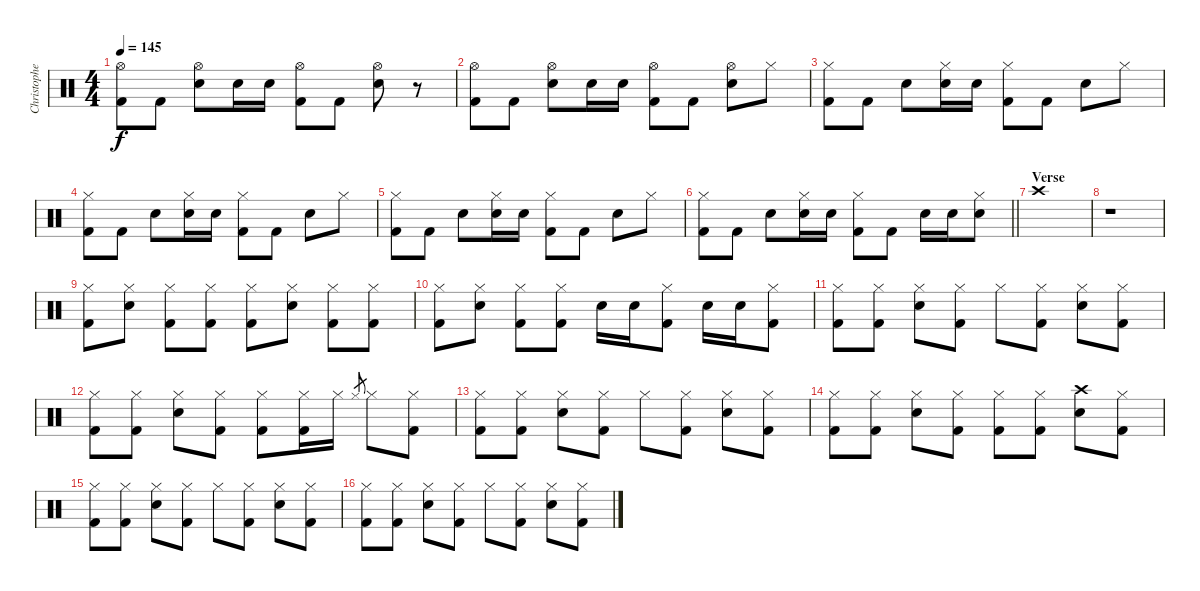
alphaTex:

\track ("Christopher - Drums" "Christophe") {instrument percussion}
\staff {score}
\articulation defaults
\ts (4 4)
\tempo 145
\clef neutral
\ks c
("Hi-Hat (open)" "Kick (hit) 2").8{dy f} "Kick (hit) 2".8 ("Hi-Hat (open)" "Electric Snare (hit)").8 "Electric Snare (hit)".16 "Electric Snare (hit)".16 ("Hi-Hat (open)" "Kick (hit) 2").8 "Kick (hit) 2".8 ("Hi-Hat (open)" "Electric Snare (hit)").8 r.8 |
("Hi-Hat (open)" "Kick (hit) 2").8 "Kick (hit) 2".8 ("Hi-Hat (open)" "Electric Snare (hit)").8 "Electric Snare (hit)".16 "Electric Snare (hit)".16 ("Hi-Hat (open)" "Kick (hit) 2").8 "Kick (hit) 2".8 ("Hi-Hat (open)" "Electric Snare (hit)").8 "Hi-Hat (closed)".8 |
("Hi-Hat (closed)" "Kick (hit) 2").8 "Kick (hit) 2".8 "Electric Snare (hit)".8 ("Hi-Hat (closed)" "Electric Snare (hit)").16 "Electric Snare (hit)".16 ("Hi-Hat (closed)" "Kick (hit) 2").8 "Kick (hit) 2".8 "Electric Snare (hit)".8 "Hi-Hat (closed)".8 |
("Hi-Hat (closed)" "Kick (hit) 2").8 "Kick (hit) 2".8 "Electric Snare (hit)".8 ("Hi-Hat (closed)" "Electric Snare (hit)").16 "Electric Snare (hit)".16 ("Hi-Hat (closed)" "Kick (hit) 2").8 "Kick (hit) 2".8 "Electric Snare (hit)".8 "Hi-Hat (closed)".8 |
("Hi-Hat (closed)" "Kick (hit) 2").8 "Kick (hit) 2".8 "Electric Snare (hit)".8 ("Hi-Hat (closed)" "Electric Snare (hit)").16 "Electric Snare (hit)".16 ("Hi-Hat (closed)" "Kick (hit) 2").8 "Kick (hit) 2".8 "Electric Snare (hit)".8 "Hi-Hat (closed)".8 |
\barLineRight lightlight
("Hi-Hat (closed)" "Kick (hit) 2").8 "Kick (hit) 2".8 "Electric Snare (hit)".8 ("Hi-Hat (closed)" "Electric Snare (hit)").16 "Electric Snare (hit)".16 ("Hi-Hat (closed)" "Kick (hit) 2").8 "Kick (hit) 2".8 "Electric Snare (hit)".16 "Electric Snare (hit)".16 ("Hi-Hat (closed)" "Electric Snare (hit)").8 |
\section ("" "Verse")
"Crash high (hit)".1 |
r.1 |
("Hi-Hat (closed)" "Kick (hit) 2").8 ("Hi-Hat (closed)" "Electric Snare (hit)").8 ("Hi-Hat (closed)" "Kick (hit) 2").8 ("Hi-Hat (closed)" "Kick (hit) 2").8 ("Hi-Hat (closed)" "Kick (hit) 2").8 ("Hi-Hat (closed)" "Electric Snare (hit)").8 ("Hi-Hat (closed)" "Kick (hit) 2").8 ("Hi-Hat (closed)" "Kick (hit) 2").8 |
("Hi-Hat (closed)" "Kick (hit) 2").8 ("Hi-Hat (closed)" "Electric Snare (hit)").8 ("Hi-Hat (closed)" "Kick (hit) 2").8 ("Hi-Hat (closed)" "Kick (hit) 2").8 "Electric Snare (hit)".16 "Electric Snare (hit)".16 ("Hi-Hat (closed)" "Kick (hit) 2").8 "Electric Snare (hit)".16 "Electric Snare (hit)".16 ("Hi-Hat (closed)" "Kick (hit) 2").8 |
("Hi-Hat (closed)" "Kick (hit) 2").8 ("Hi-Hat (closed)" "Kick (hit) 2").8 ("Hi-Hat (closed)" "Electric Snare (hit)").8 ("Hi-Hat (closed)" "Kick (hit) 2").8 "Hi-Hat (closed)".8 ("Hi-Hat (closed)" "Kick (hit) 2").8 ("Hi-Hat (closed)" "Electric Snare (hit)").8 ("Hi-Hat (closed)" "Kick (hit) 2").8 |
("Hi-Hat (closed)" "Kick (hit) 2").8 ("Hi-Hat (closed)" "Kick (hit) 2").8 ("Hi-Hat (closed)" "Electric Snare (hit)").8 ("Hi-Hat (closed)" "Kick (hit) 2").8 ("Hi-Hat (closed)" "Kick (hit) 2").8 ("Hi-Hat (closed)" "Kick (hit) 2").16 "Hi-Hat (closed)".16 "Hi-Hat (closed)".8{gr} "Hi-Hat (closed)".8 ("Hi-Hat (closed)" "Kick (hit) 2").8 |
("Hi-Hat (closed)" "Kick (hit) 2").8 ("Hi-Hat (closed)" "Kick (hit) 2").8 ("Hi-Hat (closed)" "Electric Snare (hit)").8 ("Hi-Hat (closed)" "Kick (hit) 2").8 "Hi-Hat (closed)".8 ("Hi-Hat (closed)" "Kick (hit) 2").8 ("Hi-Hat (closed)" "Electric Snare (hit)").8 ("Hi-Hat (closed)" "Kick (hit) 2").8 |
("Hi-Hat (closed)" "Kick (hit) 2").8 ("Hi-Hat (closed)" "Kick (hit) 2").8 ("Hi-Hat (closed)" "Electric Snare (hit)").8 ("Hi-Hat (closed)" "Kick (hit) 2").8 ("Hi-Hat (closed)" "Kick (hit) 2").8 ("Hi-Hat (closed)" "Kick (hit) 2").8 ("Crash high (hit)" "Electric Snare (hit)").8 ("Hi-Hat (closed)" "Kick (hit) 2").8 |
("Hi-Hat (closed)" "Kick (hit) 2").8 ("Hi-Hat (closed)" "Kick (hit) 2").8 ("Hi-Hat (closed)" "Electric Snare (hit)").8 ("Hi-Hat (closed)" "Kick (hit) 2").8 "Hi-Hat (closed)".8 ("Hi-Hat (closed)" "Kick (hit) 2").8 ("Hi-Hat (closed)" "Electric Snare (hit)").8 ("Hi-Hat (closed)" "Kick (hit) 2").8 |
("Hi-Hat (closed)" "Kick (hit) 2").8 ("Hi-Hat (closed)" "Kick (hit) 2").8 ("Hi-Hat (closed)" "Electric Snare (hit)").8 ("Hi-Hat (closed)" "Kick (hit) 2").8 "Hi-Hat (closed)".8 ("Hi-Hat (closed)" "Kick (hit) 2").8 ("Hi-Hat (closed)" "Electric Snare (hit)").8 ("Hi-Hat (closed)" "Kick (hit) 2").8
